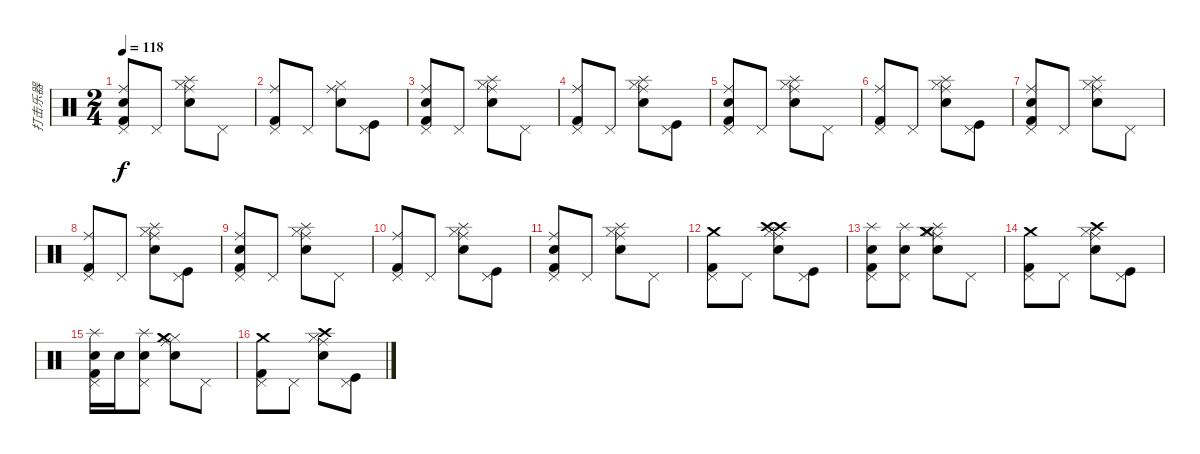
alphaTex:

\track ("打击乐器" "打击乐器") {instrument percussion}
\staff {score}
\articulation defaults
\ts (2 4)
\tempo 118
\clef neutral
\ks c
("Snare (hit) 2" "Pedal Hi-Hat (hit)" "Ride (middle)" "Kick (hit) 2").8{dy f} "Pedal Hi-Hat (hit)".8 ("Ride (middle)" "Hi-Hat (closed)" "Splash (hit)" "Snare (hit) 2").8 "Pedal Hi-Hat (hit)".8 |
("Pedal Hi-Hat (hit)" "Ride (middle)" "Kick (hit) 2").8 "Pedal Hi-Hat (hit)".8 ("Ride (middle)" "Hi-Hat (closed)" "Snare (hit) 2").8 ("Pedal Hi-Hat (hit)" "Kick (hit)").8 |
("Snare (hit) 2" "Pedal Hi-Hat (hit)" "Ride (middle)" "Kick (hit) 2").8 "Pedal Hi-Hat (hit)".8 ("Ride (middle)" "Hi-Hat (closed)" "Splash (hit)" "Snare (hit) 2").8 "Pedal Hi-Hat (hit)".8 |
("Pedal Hi-Hat (hit)" "Ride (middle)" "Kick (hit) 2").8 "Pedal Hi-Hat (hit)".8 ("Ride (middle)" "Hi-Hat (closed)" "Splash (hit)" "Snare (hit) 2").8 ("Pedal Hi-Hat (hit)" "Kick (hit)").8 |
("Snare (hit) 2" "Pedal Hi-Hat (hit)" "Ride (middle)" "Kick (hit) 2").8 "Pedal Hi-Hat (hit)".8 ("Ride (middle)" "Hi-Hat (closed)" "Splash (hit)" "Snare (hit) 2").8 "Pedal Hi-Hat (hit)".8 |
("Pedal Hi-Hat (hit)" "Ride (middle)" "Kick (hit) 2").8 "Pedal Hi-Hat (hit)".8 ("Ride (middle)" "Hi-Hat (closed)" "Splash (hit)" "Snare (hit) 2").8 ("Pedal Hi-Hat (hit)" "Kick (hit)").8 |
("Snare (hit) 2" "Pedal Hi-Hat (hit)" "Ride (middle)" "Kick (hit) 2").8 "Pedal Hi-Hat (hit)".8 ("Ride (middle)" "Hi-Hat (closed)" "Splash (hit)" "Snare (hit) 2").8 "Pedal Hi-Hat (hit)".8 |
("Pedal Hi-Hat (hit)" "Ride (middle)" "Kick (hit) 2").8 "Pedal Hi-Hat (hit)".8 ("Ride (middle)" "Hi-Hat (closed)" "Splash (hit)" "Snare (hit) 2").8 ("Pedal Hi-Hat (hit)" "Kick (hit)").8 |
("Snare (hit) 2" "Pedal Hi-Hat (hit)" "Ride (middle)" "Kick (hit) 2").8 "Pedal Hi-Hat (hit)".8 ("Ride (middle)" "Hi-Hat (closed)" "Splash (hit)" "Snare (hit) 2").8 "Pedal Hi-Hat (hit)".8 |
("Pedal Hi-Hat (hit)" "Ride (middle)" "Kick (hit) 2").8 "Pedal Hi-Hat (hit)".8 ("Ride (middle)" "Hi-Hat (closed)" "Splash (hit)" "Snare (hit) 2").8 ("Pedal Hi-Hat (hit)" "Kick (hit)").8 |
("Snare (hit) 2" "Pedal Hi-Hat (hit)" "Ride (middle)" "Kick (hit) 2").8 "Pedal Hi-Hat (hit)".8 ("Ride (middle)" "Hi-Hat (closed)" "Splash (hit)" "Snare (hit) 2").8 "Pedal Hi-Hat (hit)".8 |
("Pedal Hi-Hat (hit)" "Crash medium (hit)" "Kick (hit) 2").8 "Pedal Hi-Hat (hit)".8 ("Crash high (hit)" "Ride (middle)" "Hi-Hat (closed)" "Crash high (hit)" "Snare (hit) 2").8 ("Pedal Hi-Hat (hit)" "Kick (hit)").8 |
("Snare (hit) 2" "Pedal Hi-Hat (hit)" "Splash (hit)" "Kick (hit) 2").8 ("Snare (hit) 2" "Pedal Hi-Hat (hit)" "Splash (hit)").8 ("Splash (hit)" "Ride (middle)" "Hi-Hat (closed)" "Crash medium (hit)" "Snare (hit) 2").8 "Pedal Hi-Hat (hit)".8 |
("Pedal Hi-Hat (hit)" "Crash medium (hit)" "Kick (hit) 2").8 "Pedal Hi-Hat (hit)".8 ("Ride (middle)" "Hi-Hat (closed)" "Crash high (hit)" "Snare (hit) 2").8 ("Pedal Hi-Hat (hit)" "Kick (hit)").8 |
("Snare (hit) 2" "Pedal Hi-Hat (hit)" "Splash (hit)" "Kick (hit) 2").16 "Snare (hit) 2".16 ("Snare (hit) 2" "Pedal Hi-Hat (hit)" "Splash (hit)").8 ("Ride (middle)" "Hi-Hat (closed)" "Crash medium (hit)" "Snare (hit) 2").8 "Pedal Hi-Hat (hit)".8 |
("Pedal Hi-Hat (hit)" "Crash medium (hit)" "Kick (hit) 2").8 "Pedal Hi-Hat (hit)".8 ("Ride (middle)" "Hi-Hat (closed)" "Crash high (hit)" "Snare (hit) 2").8 ("Pedal Hi-Hat (hit)" "Kick (hit)").8
